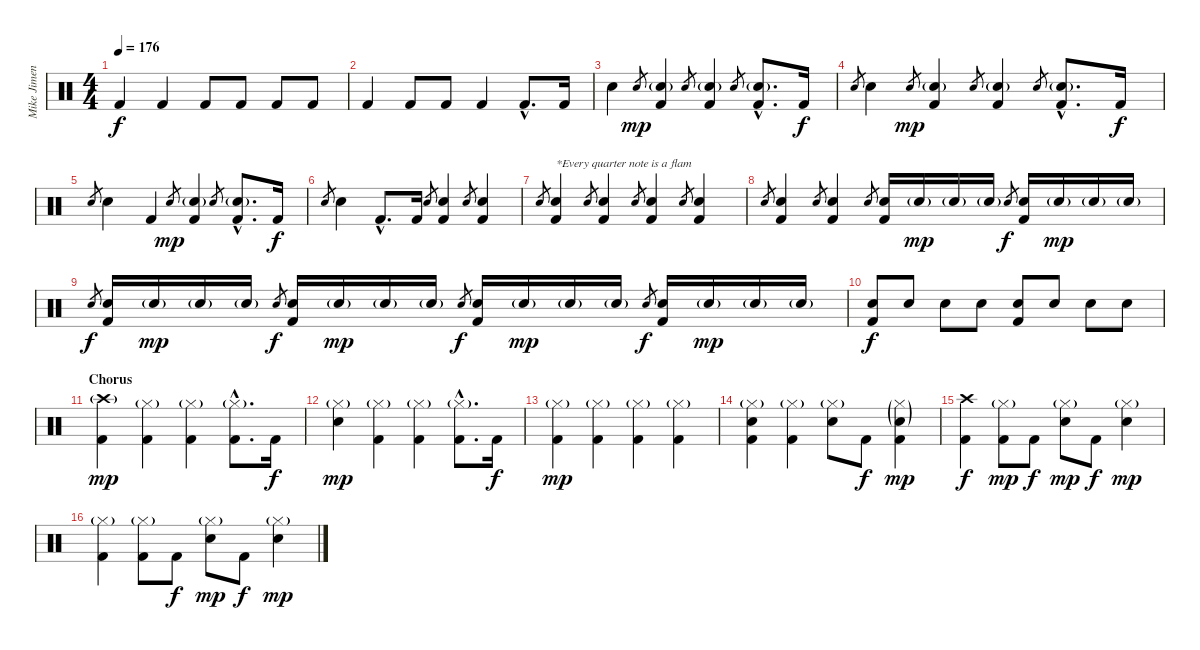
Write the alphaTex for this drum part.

\track ("Mike Jimenez" "Mike Jimen") {instrument percussion}
\staff {score}
\articulation defaults
\ts (4 4)
\tempo 176
\clef neutral
\ks c "Kick (hit) 2".4{dy f} "Kick (hit) 2".4 "Kick (hit) 2".8 "Kick (hit) 2".8 "Kick (hit) 2".8 "Kick (hit) 2".8
|
"Kick (hit) 2".4 "Kick (hit) 2".8 "Kick (hit) 2".8 "Kick (hit) 2".4 "Kick (hit) 2"{hac}.8{d} "Kick (hit) 2".16 |
"Electric Snare (hit)".4 "Electric Snare (hit)".8{gr dy mp} ("Electric Snare (hit)"{g} "Kick (hit) 2").4 "Electric Snare (hit)".8{gr} ("Electric Snare (hit)"{g} "Kick (hit) 2").4 "Electric Snare (hit)".8{gr} ("Electric Snare (hit)"{g hac} "Kick (hit) 2"{hac}).8{d} "Kick (hit) 2".16{dy f} |
"Electric Snare (hit)".8{gr} "Electric Snare (hit)".4 "Electric Snare (hit)".8{gr dy mp} ("Electric Snare (hit)"{g} "Kick (hit) 2").4 "Electric Snare (hit)".8{gr} ("Electric Snare (hit)"{g} "Kick (hit) 2").4 "Electric Snare (hit)".8{gr} ("Electric Snare (hit)"{g hac} "Kick (hit) 2"{hac}).8{d} "Kick (hit) 2".16{dy f} |
"Electric Snare (hit)".8{gr} "Electric Snare (hit)".4 "Kick (hit) 2".4 "Electric Snare (hit)".8{gr dy mp} ("Electric Snare (hit)"{g} "Kick (hit) 2").4 "Electric Snare (hit)".8{gr} ("Electric Snare (hit)"{g hac} "Kick (hit) 2"{hac}).8{d} "Kick (hit) 2".16{dy f} |
"Electric Snare (hit)".8{gr} "Electric Snare (hit)".4 "Kick (hit) 2"{hac}.8{d} "Kick (hit) 2".16 "Electric Snare (hit)".8{gr} ("Electric Snare (hit)" "Kick (hit) 2").4 "Electric Snare (hit)".8{gr} ("Electric Snare (hit)" "Kick (hit) 2").4 |
"Electric Snare (hit)".8{gr} ("Electric Snare (hit)" "Kick (hit) 2").4{txt "*Every quarter note is a flam"} "Electric Snare (hit)".8{gr} ("Electric Snare (hit)" "Kick (hit) 2").4 "Electric Snare (hit)".8{gr} ("Electric Snare (hit)" "Kick (hit) 2").4 "Electric Snare (hit)".8{gr} ("Electric Snare (hit)" "Kick (hit) 2").4 |
"Electric Snare (hit)".8{gr} ("Electric Snare (hit)" "Kick (hit) 2").4 "Electric Snare (hit)".8{gr} ("Electric Snare (hit)" "Kick (hit) 2").4 "Electric Snare (hit)".8{gr} ("Electric Snare (hit)" "Kick (hit) 2").16 "Electric Snare (hit)"{g}.16{dy mp} "Electric Snare (hit)"{g}.16 "Electric Snare (hit)"{g}.16 "Electric Snare (hit)".8{gr dy f} ("Electric Snare (hit)" "Kick (hit) 2").16 "Electric Snare (hit)"{g}.16{dy mp} "Electric Snare (hit)"{g}.16 "Electric Snare (hit)"{g}.16 |
"Electric Snare (hit)".8{gr dy f} ("Electric Snare (hit)" "Kick (hit) 2").16 "Electric Snare (hit)"{g}.16{dy mp} "Electric Snare (hit)"{g}.16 "Electric Snare (hit)"{g}.16 "Electric Snare (hit)".8{gr dy f} ("Electric Snare (hit)" "Kick (hit) 2").16 "Electric Snare (hit)"{g}.16{dy mp} "Electric Snare (hit)"{g}.16 "Electric Snare (hit)"{g}.16 "Electric Snare (hit)".8{gr dy f} ("Electric Snare (hit)" "Kick (hit) 2").16 "Electric Snare (hit)"{g}.16{dy mp} "Electric Snare (hit)"{g}.16 "Electric Snare (hit)"{g}.16 "Electric Snare (hit)".8{gr dy f} ("Electric Snare (hit)" "Kick (hit) 2").16 "Electric Snare (hit)"{g}.16{dy mp} "Electric Snare (hit)"{g}.16 "Electric Snare (hit)"{g}.16 |
("Electric Snare (hit)" "Kick (hit) 2").8{dy f} "Electric Snare (hit)".8 "Electric Snare (hit)".8 "Electric Snare (hit)".8 ("Electric Snare (hit)" "Kick (hit) 2").8 "Electric Snare (hit)".8 "Electric Snare (hit)".8 "Electric Snare (hit)".8 |
\section ("" "Chorus")
("Crash high (hit)"{g} "Kick (hit) 2").4{dy mp} ("Hi-Hat (closed)"{g} "Kick (hit) 2").4 ("Hi-Hat (closed)"{g} "Kick (hit) 2").4 ("Hi-Hat (closed)"{g hac} "Kick (hit) 2"{hac}).8{d} "Kick (hit) 2".16{dy f} |
("Hi-Hat (closed)"{g} "Electric Snare (hit)").4{dy mp} ("Hi-Hat (closed)"{g} "Kick (hit) 2").4 ("Hi-Hat (closed)"{g} "Kick (hit) 2").4 ("Hi-Hat (closed)"{g hac} "Kick (hit) 2"{hac}).8{d} "Kick (hit) 2".16{dy f} |
("Hi-Hat (closed)"{g} "Kick (hit) 2").4{dy mp} ("Hi-Hat (closed)"{g} "Kick (hit) 2").4 ("Hi-Hat (closed)"{g} "Kick (hit) 2").4 ("Hi-Hat (closed)"{g} "Kick (hit) 2").4 |
("Hi-Hat (closed)"{g} "Electric Snare (hit)" "Kick (hit) 2").4 ("Hi-Hat (closed)"{g} "Kick (hit) 2").4 ("Hi-Hat (closed)"{g} "Electric Snare (hit)").8 "Kick (hit) 2".8{dy f} ("Hi-Hat (closed)"{g} "Electric Snare (hit)"{g} "Kick (hit) 2").4{dy mp} |
("Crash high (hit)" "Kick (hit) 2").4{dy f} ("Hi-Hat (closed)"{g} "Kick (hit) 2").8{dy mp} "Kick (hit) 2".8{dy f} ("Hi-Hat (closed)"{g} "Electric Snare (hit)").8{dy mp} "Kick (hit) 2".8{dy f} ("Hi-Hat (closed)"{g} "Electric Snare (hit)").4{dy mp} |
("Hi-Hat (closed)"{g} "Kick (hit) 2").4 ("Hi-Hat (closed)"{g} "Kick (hit) 2").8 "Kick (hit) 2".8{dy f} ("Hi-Hat (closed)"{g} "Electric Snare (hit)").8{dy mp} "Kick (hit) 2".8{dy f} ("Hi-Hat (closed)"{g} "Electric Snare (hit)").4{dy mp}
